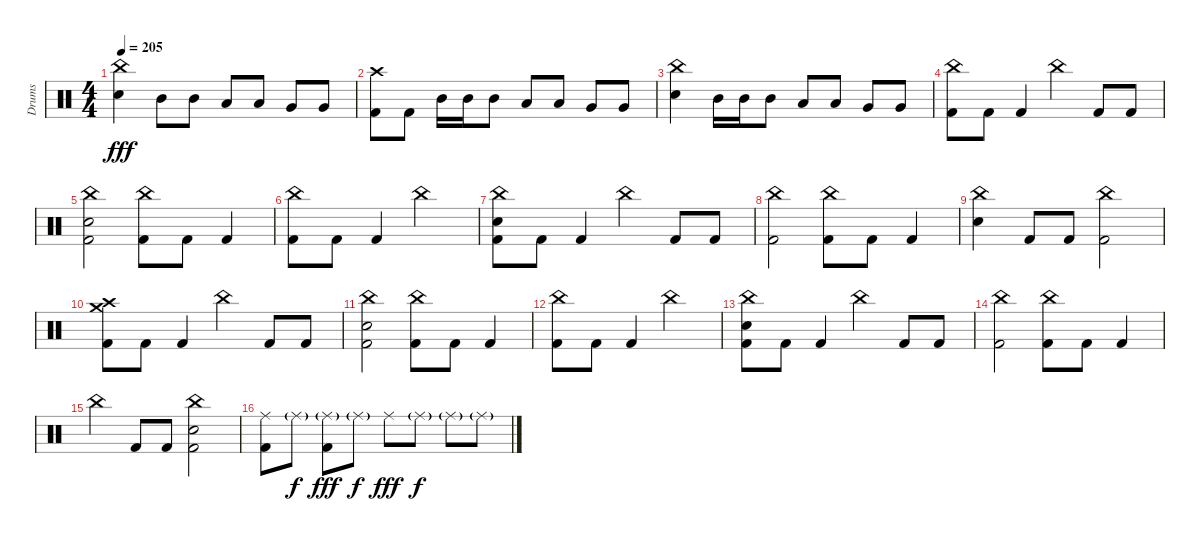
\track ("Drums" "Drums") {instrument percussion}
\staff {score}
\articulation defaults
\ts (4 4)
\tempo 205
\clef neutral
\ks c
("China (hit)" "Snare (hit) 2").4{dy fff} "Mid Tom (hit)".8 "Mid Tom (hit)".8 "Low Tom (hit)".8 "Low Tom (hit)".8 "Very Low Tom (hit)".8 "Very Low Tom (hit)".8 |
("Crash high (hit)" "Kick (hit) 2").8 "Kick (hit) 2".8 "Mid Tom (hit)".16 "Mid Tom (hit)".16 "Mid Tom (hit)".8 "Low Tom (hit)".8 "Low Tom (hit)".8 "Very Low Tom (hit)".8 "Very Low Tom (hit)".8 |
("China (hit)" "Snare (hit) 2").4 "Mid Tom (hit)".16 "Mid Tom (hit)".16 "Mid Tom (hit)".8 "Low Tom (hit)".8 "Low Tom (hit)".8 "Very Low Tom (hit)".8 "Very Low Tom (hit)".8 |
("China (hit)" "Kick (hit) 2").8 "Kick (hit) 2".8 "Kick (hit) 2".4 "China (hit)".4 "Kick (hit) 2".8 "Kick (hit) 2".8 |
("China (hit)" "Snare (hit) 2" "Kick (hit) 2").2 ("China (hit)" "Kick (hit) 2").8 "Kick (hit) 2".8 "Kick (hit) 2".4 |
("China (hit)" "Kick (hit) 2").8 "Kick (hit) 2".8 "Kick (hit) 2".4 "China (hit)".2 |
("China (hit)" "Snare (hit) 2" "Kick (hit) 2").8 "Kick (hit) 2".8 "Kick (hit) 2".4 "China (hit)".4 "Kick (hit) 2".8 "Kick (hit) 2".8 |
("China (hit)" "Kick (hit) 2").2 ("China (hit)" "Kick (hit) 2").8 "Kick (hit) 2".8 "Kick (hit) 2".4 |
("China (hit)" "Snare (hit) 2").4 "Kick (hit) 2".8 "Kick (hit) 2".8 ("China (hit)" "Kick (hit) 2").2 |
("Crash medium (hit)" "Crash high (hit)" "Kick (hit) 2").8 "Kick (hit) 2".8 "Kick (hit) 2".4 "China (hit)".4 "Kick (hit) 2".8 "Kick (hit) 2".8 |
("China (hit)" "Snare (hit) 2" "Kick (hit) 2").2 ("China (hit)" "Kick (hit) 2").8 "Kick (hit) 2".8 "Kick (hit) 2".4 |
("China (hit)" "Kick (hit) 2").8 "Kick (hit) 2".8 "Kick (hit) 2".4 "China (hit)".2 |
("China (hit)" "Snare (hit) 2" "Kick (hit) 2").8 "Kick (hit) 2".8 "Kick (hit) 2".4 "China (hit)".4 "Kick (hit) 2".8 "Kick (hit) 2".8 |
("China (hit)" "Kick (hit) 2").2 ("China (hit)" "Kick (hit) 2").8 "Kick (hit) 2".8 "Kick (hit) 2".4 |
"China (hit)".4 "Kick (hit) 2".8 "Kick (hit) 2".8 ("China (hit)" "Snare (hit) 2" "Kick (hit) 2").2 |
("Ride (middle)" "Kick (hit) 2").8 "Ride (middle)"{g}.8{dy f} ("Ride (middle)"{g} "Kick (hit) 2").8{dy fff} "Ride (middle)"{g}.8{dy f} "Ride (middle)".8{dy fff} "Ride (middle)"{g}.8{dy f} "Ride (middle)"{g}.8 "Ride (middle)"{g}.8
